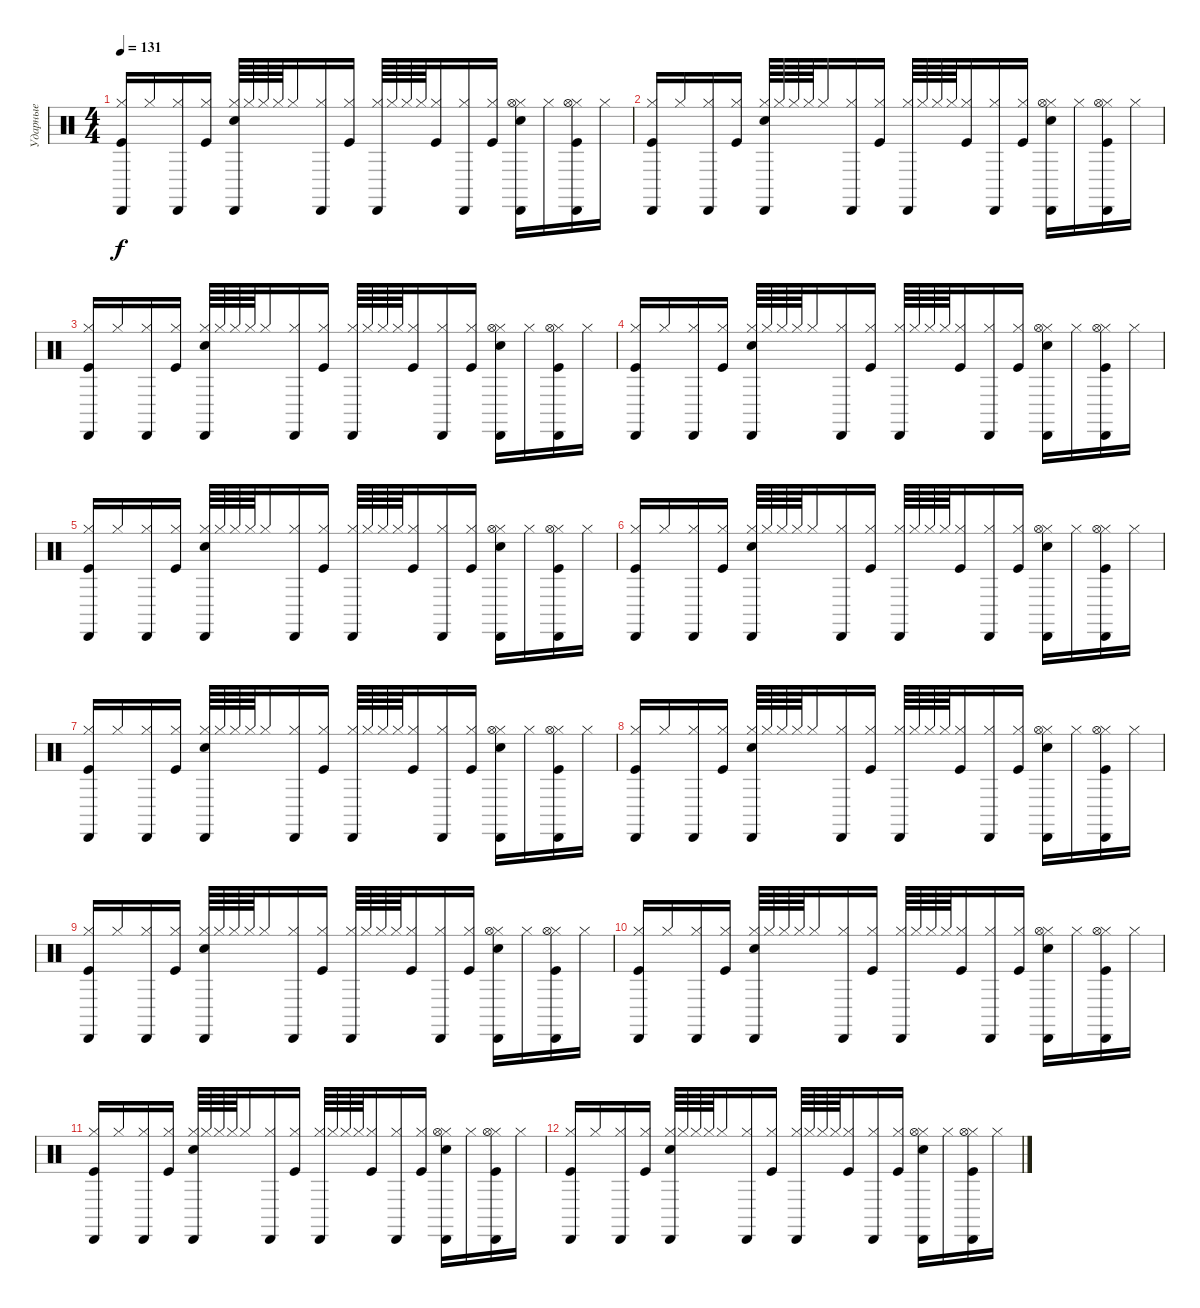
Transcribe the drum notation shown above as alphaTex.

\track ("Ударные" "Ударные") {instrument percussion}
\staff {score}
\articulation defaults
\ts (4 4)
\tempo 131
\clef neutral
\ks c
("Hi-Hat (closed)" "Kick (hit)" "Cabasa (hit)").16{dy f} "Hi-Hat (closed)".16 ("Hi-Hat (closed)" "Cabasa (hit)").16 ("Hi-Hat (closed)" "Kick (hit)").16 ("Hi-Hat (closed)" "Snare (hit) 2" "Cabasa (hit)").64 "Hi-Hat (closed)".64 "Hi-Hat (closed)".64 "Hi-Hat (closed)".64 "Hi-Hat (closed)".16 ("Hi-Hat (closed)" "Cabasa (hit)").16 ("Hi-Hat (closed)" "Kick (hit)").16 ("Hi-Hat (closed)" "Cabasa (hit)").64 "Hi-Hat (closed)".64 "Hi-Hat (closed)".64 "Hi-Hat (closed)".64 ("Hi-Hat (closed)" "Kick (hit)").16 ("Hi-Hat (closed)" "Cabasa (hit)").16 ("Hi-Hat (closed)" "Kick (hit)").16 ("Hi-Hat (closed)" "Hi-Hat (open)" "Snare (hit) 2" "Cabasa (hit)").16 "Hi-Hat (closed)".16 ("Hi-Hat (closed)" "Hi-Hat (open)" "Kick (hit)" "Cabasa (hit)").16 "Hi-Hat (closed)".16 |
("Hi-Hat (closed)" "Kick (hit)" "Cabasa (hit)").16 "Hi-Hat (closed)".16 ("Hi-Hat (closed)" "Cabasa (hit)").16 ("Hi-Hat (closed)" "Kick (hit)").16 ("Hi-Hat (closed)" "Snare (hit) 2" "Cabasa (hit)").64 "Hi-Hat (closed)".64 "Hi-Hat (closed)".64 "Hi-Hat (closed)".64 "Hi-Hat (closed)".16 ("Hi-Hat (closed)" "Cabasa (hit)").16 ("Hi-Hat (closed)" "Kick (hit)").16 ("Hi-Hat (closed)" "Cabasa (hit)").64 "Hi-Hat (closed)".64 "Hi-Hat (closed)".64 "Hi-Hat (closed)".64 ("Hi-Hat (closed)" "Kick (hit)").16 ("Hi-Hat (closed)" "Cabasa (hit)").16 ("Hi-Hat (closed)" "Kick (hit)").16 ("Hi-Hat (closed)" "Hi-Hat (open)" "Snare (hit) 2" "Cabasa (hit)").16 "Hi-Hat (closed)".16 ("Hi-Hat (closed)" "Hi-Hat (open)" "Kick (hit)" "Cabasa (hit)").16 "Hi-Hat (closed)".16 |
("Hi-Hat (closed)" "Kick (hit)" "Cabasa (hit)").16 "Hi-Hat (closed)".16 ("Hi-Hat (closed)" "Cabasa (hit)").16 ("Hi-Hat (closed)" "Kick (hit)").16 ("Hi-Hat (closed)" "Snare (hit) 2" "Cabasa (hit)").64 "Hi-Hat (closed)".64 "Hi-Hat (closed)".64 "Hi-Hat (closed)".64 "Hi-Hat (closed)".16 ("Hi-Hat (closed)" "Cabasa (hit)").16 ("Hi-Hat (closed)" "Kick (hit)").16 ("Hi-Hat (closed)" "Cabasa (hit)").64 "Hi-Hat (closed)".64 "Hi-Hat (closed)".64 "Hi-Hat (closed)".64 ("Hi-Hat (closed)" "Kick (hit)").16 ("Hi-Hat (closed)" "Cabasa (hit)").16 ("Hi-Hat (closed)" "Kick (hit)").16 ("Hi-Hat (closed)" "Hi-Hat (open)" "Snare (hit) 2" "Cabasa (hit)").16 "Hi-Hat (closed)".16 ("Hi-Hat (closed)" "Hi-Hat (open)" "Kick (hit)" "Cabasa (hit)").16 "Hi-Hat (closed)".16 |
("Hi-Hat (closed)" "Kick (hit)" "Cabasa (hit)").16 "Hi-Hat (closed)".16 ("Hi-Hat (closed)" "Cabasa (hit)").16 ("Hi-Hat (closed)" "Kick (hit)").16 ("Hi-Hat (closed)" "Snare (hit) 2" "Cabasa (hit)").64 "Hi-Hat (closed)".64 "Hi-Hat (closed)".64 "Hi-Hat (closed)".64 "Hi-Hat (closed)".16 ("Hi-Hat (closed)" "Cabasa (hit)").16 ("Hi-Hat (closed)" "Kick (hit)").16 ("Hi-Hat (closed)" "Cabasa (hit)").64 "Hi-Hat (closed)".64 "Hi-Hat (closed)".64 "Hi-Hat (closed)".64 ("Hi-Hat (closed)" "Kick (hit)").16 ("Hi-Hat (closed)" "Cabasa (hit)").16 ("Hi-Hat (closed)" "Kick (hit)").16 ("Hi-Hat (closed)" "Hi-Hat (open)" "Snare (hit) 2" "Cabasa (hit)").16 "Hi-Hat (closed)".16 ("Hi-Hat (closed)" "Hi-Hat (open)" "Kick (hit)" "Cabasa (hit)").16 "Hi-Hat (closed)".16 |
("Hi-Hat (closed)" "Kick (hit)" "Cabasa (hit)").16 "Hi-Hat (closed)".16 ("Hi-Hat (closed)" "Cabasa (hit)").16 ("Hi-Hat (closed)" "Kick (hit)").16 ("Hi-Hat (closed)" "Snare (hit) 2" "Cabasa (hit)").64 "Hi-Hat (closed)".64 "Hi-Hat (closed)".64 "Hi-Hat (closed)".64 "Hi-Hat (closed)".16 ("Hi-Hat (closed)" "Cabasa (hit)").16 ("Hi-Hat (closed)" "Kick (hit)").16 ("Hi-Hat (closed)" "Cabasa (hit)").64 "Hi-Hat (closed)".64 "Hi-Hat (closed)".64 "Hi-Hat (closed)".64 ("Hi-Hat (closed)" "Kick (hit)").16 ("Hi-Hat (closed)" "Cabasa (hit)").16 ("Hi-Hat (closed)" "Kick (hit)").16 ("Hi-Hat (closed)" "Hi-Hat (open)" "Snare (hit) 2" "Cabasa (hit)").16 "Hi-Hat (closed)".16 ("Hi-Hat (closed)" "Hi-Hat (open)" "Kick (hit)" "Cabasa (hit)").16 "Hi-Hat (closed)".16 |
("Hi-Hat (closed)" "Kick (hit)" "Cabasa (hit)").16 "Hi-Hat (closed)".16 ("Hi-Hat (closed)" "Cabasa (hit)").16 ("Hi-Hat (closed)" "Kick (hit)").16 ("Hi-Hat (closed)" "Snare (hit) 2" "Cabasa (hit)").64 "Hi-Hat (closed)".64 "Hi-Hat (closed)".64 "Hi-Hat (closed)".64 "Hi-Hat (closed)".16 ("Hi-Hat (closed)" "Cabasa (hit)").16 ("Hi-Hat (closed)" "Kick (hit)").16 ("Hi-Hat (closed)" "Cabasa (hit)").64 "Hi-Hat (closed)".64 "Hi-Hat (closed)".64 "Hi-Hat (closed)".64 ("Hi-Hat (closed)" "Kick (hit)").16 ("Hi-Hat (closed)" "Cabasa (hit)").16 ("Hi-Hat (closed)" "Kick (hit)").16 ("Hi-Hat (closed)" "Hi-Hat (open)" "Snare (hit) 2" "Cabasa (hit)").16 "Hi-Hat (closed)".16 ("Hi-Hat (closed)" "Hi-Hat (open)" "Kick (hit)" "Cabasa (hit)").16 "Hi-Hat (closed)".16 |
("Hi-Hat (closed)" "Kick (hit)" "Cabasa (hit)").16 "Hi-Hat (closed)".16 ("Hi-Hat (closed)" "Cabasa (hit)").16 ("Hi-Hat (closed)" "Kick (hit)").16 ("Hi-Hat (closed)" "Snare (hit) 2" "Cabasa (hit)").64 "Hi-Hat (closed)".64 "Hi-Hat (closed)".64 "Hi-Hat (closed)".64 "Hi-Hat (closed)".16 ("Hi-Hat (closed)" "Cabasa (hit)").16 ("Hi-Hat (closed)" "Kick (hit)").16 ("Hi-Hat (closed)" "Cabasa (hit)").64 "Hi-Hat (closed)".64 "Hi-Hat (closed)".64 "Hi-Hat (closed)".64 ("Hi-Hat (closed)" "Kick (hit)").16 ("Hi-Hat (closed)" "Cabasa (hit)").16 ("Hi-Hat (closed)" "Kick (hit)").16 ("Hi-Hat (closed)" "Hi-Hat (open)" "Snare (hit) 2" "Cabasa (hit)").16 "Hi-Hat (closed)".16 ("Hi-Hat (closed)" "Hi-Hat (open)" "Kick (hit)" "Cabasa (hit)").16 "Hi-Hat (closed)".16 |
("Hi-Hat (closed)" "Kick (hit)" "Cabasa (hit)").16 "Hi-Hat (closed)".16 ("Hi-Hat (closed)" "Cabasa (hit)").16 ("Hi-Hat (closed)" "Kick (hit)").16 ("Hi-Hat (closed)" "Snare (hit) 2" "Cabasa (hit)").64 "Hi-Hat (closed)".64 "Hi-Hat (closed)".64 "Hi-Hat (closed)".64 "Hi-Hat (closed)".16 ("Hi-Hat (closed)" "Cabasa (hit)").16 ("Hi-Hat (closed)" "Kick (hit)").16 ("Hi-Hat (closed)" "Cabasa (hit)").64 "Hi-Hat (closed)".64 "Hi-Hat (closed)".64 "Hi-Hat (closed)".64 ("Hi-Hat (closed)" "Kick (hit)").16 ("Hi-Hat (closed)" "Cabasa (hit)").16 ("Hi-Hat (closed)" "Kick (hit)").16 ("Hi-Hat (closed)" "Hi-Hat (open)" "Snare (hit) 2" "Cabasa (hit)").16 "Hi-Hat (closed)".16 ("Hi-Hat (closed)" "Hi-Hat (open)" "Kick (hit)" "Cabasa (hit)").16 "Hi-Hat (closed)".16 |
("Hi-Hat (closed)" "Kick (hit)" "Cabasa (hit)").16 "Hi-Hat (closed)".16 ("Hi-Hat (closed)" "Cabasa (hit)").16 ("Hi-Hat (closed)" "Kick (hit)").16 ("Hi-Hat (closed)" "Snare (hit) 2" "Cabasa (hit)").64 "Hi-Hat (closed)".64 "Hi-Hat (closed)".64 "Hi-Hat (closed)".64 "Hi-Hat (closed)".16 ("Hi-Hat (closed)" "Cabasa (hit)").16 ("Hi-Hat (closed)" "Kick (hit)").16 ("Hi-Hat (closed)" "Cabasa (hit)").64 "Hi-Hat (closed)".64 "Hi-Hat (closed)".64 "Hi-Hat (closed)".64 ("Hi-Hat (closed)" "Kick (hit)").16 ("Hi-Hat (closed)" "Cabasa (hit)").16 ("Hi-Hat (closed)" "Kick (hit)").16 ("Hi-Hat (closed)" "Hi-Hat (open)" "Snare (hit) 2" "Cabasa (hit)").16 "Hi-Hat (closed)".16 ("Hi-Hat (closed)" "Hi-Hat (open)" "Kick (hit)" "Cabasa (hit)").16 "Hi-Hat (closed)".16 |
("Hi-Hat (closed)" "Kick (hit)" "Cabasa (hit)").16 "Hi-Hat (closed)".16 ("Hi-Hat (closed)" "Cabasa (hit)").16 ("Hi-Hat (closed)" "Kick (hit)").16 ("Hi-Hat (closed)" "Snare (hit) 2" "Cabasa (hit)").64 "Hi-Hat (closed)".64 "Hi-Hat (closed)".64 "Hi-Hat (closed)".64 "Hi-Hat (closed)".16 ("Hi-Hat (closed)" "Cabasa (hit)").16 ("Hi-Hat (closed)" "Kick (hit)").16 ("Hi-Hat (closed)" "Cabasa (hit)").64 "Hi-Hat (closed)".64 "Hi-Hat (closed)".64 "Hi-Hat (closed)".64 ("Hi-Hat (closed)" "Kick (hit)").16 ("Hi-Hat (closed)" "Cabasa (hit)").16 ("Hi-Hat (closed)" "Kick (hit)").16 ("Hi-Hat (closed)" "Hi-Hat (open)" "Snare (hit) 2" "Cabasa (hit)").16 "Hi-Hat (closed)".16 ("Hi-Hat (closed)" "Hi-Hat (open)" "Kick (hit)" "Cabasa (hit)").16 "Hi-Hat (closed)".16 |
("Hi-Hat (closed)" "Kick (hit)" "Cabasa (hit)").16 "Hi-Hat (closed)".16 ("Hi-Hat (closed)" "Cabasa (hit)").16 ("Hi-Hat (closed)" "Kick (hit)").16 ("Hi-Hat (closed)" "Snare (hit) 2" "Cabasa (hit)").64 "Hi-Hat (closed)".64 "Hi-Hat (closed)".64 "Hi-Hat (closed)".64 "Hi-Hat (closed)".16 ("Hi-Hat (closed)" "Cabasa (hit)").16 ("Hi-Hat (closed)" "Kick (hit)").16 ("Hi-Hat (closed)" "Cabasa (hit)").64 "Hi-Hat (closed)".64 "Hi-Hat (closed)".64 "Hi-Hat (closed)".64 ("Hi-Hat (closed)" "Kick (hit)").16 ("Hi-Hat (closed)" "Cabasa (hit)").16 ("Hi-Hat (closed)" "Kick (hit)").16 ("Hi-Hat (closed)" "Hi-Hat (open)" "Snare (hit) 2" "Cabasa (hit)").16 "Hi-Hat (closed)".16 ("Hi-Hat (closed)" "Hi-Hat (open)" "Kick (hit)" "Cabasa (hit)").16 "Hi-Hat (closed)".16 |
("Hi-Hat (closed)" "Kick (hit)" "Cabasa (hit)").16 "Hi-Hat (closed)".16 ("Hi-Hat (closed)" "Cabasa (hit)").16 ("Hi-Hat (closed)" "Kick (hit)").16 ("Hi-Hat (closed)" "Snare (hit) 2" "Cabasa (hit)").64 "Hi-Hat (closed)".64 "Hi-Hat (closed)".64 "Hi-Hat (closed)".64 "Hi-Hat (closed)".16 ("Hi-Hat (closed)" "Cabasa (hit)").16 ("Hi-Hat (closed)" "Kick (hit)").16 ("Hi-Hat (closed)" "Cabasa (hit)").64 "Hi-Hat (closed)".64 "Hi-Hat (closed)".64 "Hi-Hat (closed)".64 ("Hi-Hat (closed)" "Kick (hit)").16 ("Hi-Hat (closed)" "Cabasa (hit)").16 ("Hi-Hat (closed)" "Kick (hit)").16 ("Hi-Hat (closed)" "Hi-Hat (open)" "Snare (hit) 2" "Cabasa (hit)").16 "Hi-Hat (closed)".16 ("Hi-Hat (closed)" "Hi-Hat (open)" "Kick (hit)" "Cabasa (hit)").16 "Hi-Hat (closed)".16
